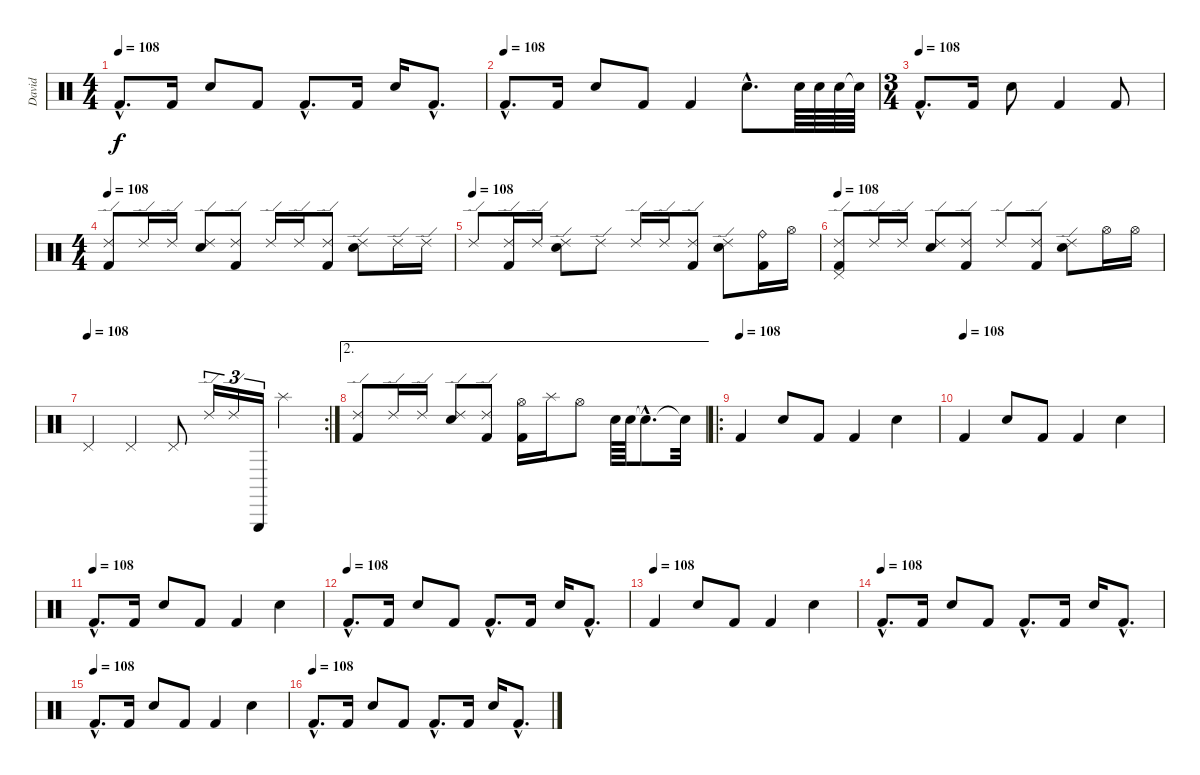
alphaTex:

\track ("David" "David") {instrument percussion}
\staff {score}
\articulation defaults
\ts (4 4)
\tempo 108
\clef neutral
\ks c "Kick (hit) 2"{hac}.8{d dy f} "Kick (hit) 2".16 "Snare (hit) 2".8 "Kick (hit) 2".8 "Kick (hit) 2"{hac}.8{d} "Kick (hit) 2".16 "Snare (hit) 2".16 "Kick (hit) 2"{hac}.8{d}
|
\tempo (108)
"Kick (hit) 2"{hac}.8{d} "Kick (hit) 2".16 "Snare (hit) 2".8 "Kick (hit) 2".8 "Kick (hit) 2".4 "Snare (hit) 2"{hac}.8{d} "Snare (hit) 2".64 "Snare (hit) 2".64 "Snare (hit) 2".64 "Snare (hit)"{t}.64 |
\ts (3 4)
\tempo (108)
"Kick (hit) 2"{hac}.8{d} "Kick (hit) 2".16 "Snare (hit) 2".8 "Kick (hit) 2".4 "Kick (hit) 2".8 |
\ts (4 4)
\tempo 108
("Ride (edge) 2" "Kick (hit) 2").8 "Ride (edge) 2".16 "Ride (edge) 2".16 ("Ride (edge) 2" "Snare (hit) 2").8 ("Ride (edge) 2" "Kick (hit) 2").8 "Ride (edge) 2".16 "Ride (edge) 2".16 ("Ride (edge) 2" "Kick (hit) 2").8 ("Ride (edge) 2" "Snare (hit) 2").8 "Ride (edge) 2".16 "Ride (edge) 2".16 |
\tempo (108)
"Ride (edge) 2".8 ("Ride (edge) 2" "Kick (hit) 2").16 "Ride (edge) 2".16 ("Ride (edge) 2" "Snare (hit) 2").8 "Ride (edge) 2".8 "Ride (edge) 2".16 "Ride (edge) 2".16 ("Ride (edge) 2" "Kick (hit) 2").8 ("Ride (edge) 2" "Snare (hit) 2").8 ("Ride (bell)" "Kick (hit) 2").16 "Hi-Hat (open)".16 |
\tempo 108
("Pedal Hi-Hat (hit)" "Ride (edge) 2" "Kick (hit) 2").8 "Ride (edge) 2".16 "Ride (edge) 2".16 ("Ride (edge) 2" "Snare (hit) 2").8 ("Ride (edge) 2" "Kick (hit) 2").8 "Ride (edge) 2".8 ("Ride (edge) 2" "Kick (hit) 2").8 ("Ride (edge) 2" "Snare (hit) 2").8 "Hi-Hat (open)".16 "Hi-Hat (open)".16 |
\rc 2
\tempo (108)
"Pedal Hi-Hat (hit)".4 "Pedal Hi-Hat (hit)".4 "Pedal Hi-Hat (hit)".8 "Ride (edge) 2".16{tu (3 2)} "Ride (edge) 2".16{tu (3 2)} "Triangle (hit)".16{tu (3 2)} "Splash (hit)".4 |
\ae 2
("Ride (edge) 2" "Kick (hit) 2").8 "Ride (edge) 2".16 "Ride (edge) 2".16 ("Ride (edge) 2" "Snare (hit) 2").8 ("Ride (edge) 2" "Kick (hit) 2").8 ("Hi-Hat (open)" "Kick (hit) 2").16 "Splash (hit)".16 "Hi-Hat (open)".8 "Snare (hit) 2".64 "Snare (hit) 2".64 "Snare (hit)"{hac t}.8{d} "Snare (hit)"{t}.32 |
\ro
\tempo (108)
"Kick (hit) 2".4 "Snare (hit) 2".8 "Kick (hit) 2".8 "Kick (hit) 2".4 "Snare (hit) 2".4 |
\tempo (108)
"Kick (hit) 2".4 "Snare (hit) 2".8 "Kick (hit) 2".8 "Kick (hit) 2".4 "Snare (hit) 2".4 |
\tempo (108)
"Kick (hit) 2"{hac}.8{d} "Kick (hit) 2".16 "Snare (hit) 2".8 "Kick (hit) 2".8 "Kick (hit) 2".4 "Snare (hit) 2".4 |
\tempo (108)
"Kick (hit) 2"{hac}.8{d} "Kick (hit) 2".16 "Snare (hit) 2".8 "Kick (hit) 2".8 "Kick (hit) 2"{hac}.8{d} "Kick (hit) 2".16 "Snare (hit) 2".16 "Kick (hit) 2"{hac}.8{d} |
\tempo (108)
"Kick (hit) 2".4 "Snare (hit) 2".8 "Kick (hit) 2".8 "Kick (hit) 2".4 "Snare (hit) 2".4 |
\tempo (108)
"Kick (hit) 2"{hac}.8{d} "Kick (hit) 2".16 "Snare (hit) 2".8 "Kick (hit) 2".8 "Kick (hit) 2"{hac}.8{d} "Kick (hit) 2".16 "Snare (hit) 2".16 "Kick (hit) 2"{hac}.8{d} |
\tempo (108)
"Kick (hit) 2"{hac}.8{d} "Kick (hit) 2".16 "Snare (hit) 2".8 "Kick (hit) 2".8 "Kick (hit) 2".4 "Snare (hit) 2".4 |
\tempo (108)
"Kick (hit) 2"{hac}.8{d} "Kick (hit) 2".16 "Snare (hit) 2".8 "Kick (hit) 2".8 "Kick (hit) 2"{hac}.8{d} "Kick (hit) 2".16 "Snare (hit) 2".16 "Kick (hit) 2"{hac}.8{d}
